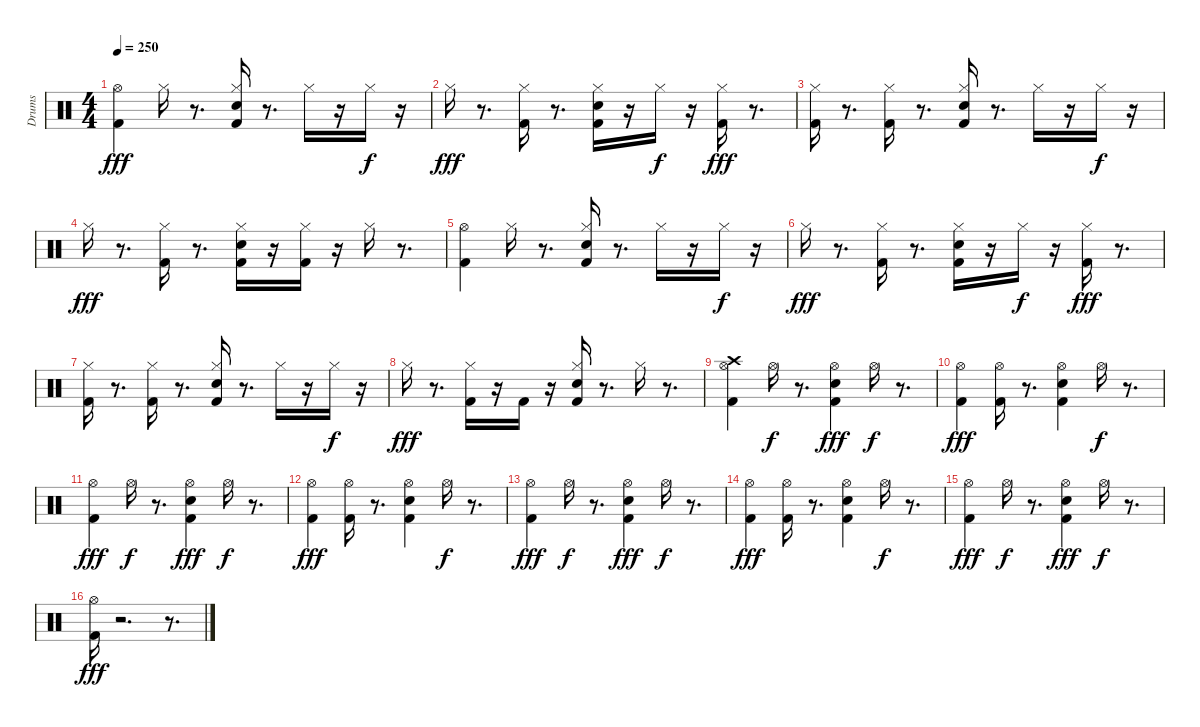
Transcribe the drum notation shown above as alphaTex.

\track ("Drums" "Drums") {instrument percussion}
\staff {score}
\articulation defaults
\ts (4 4)
\tempo 250
\clef neutral
\ks c
("Hi-Hat (open)" "Kick (hit) 2").4{dy fff} "Hi-Hat (closed)".16 r.8{d} ("Kick (hit) 2" "Electric Snare (hit)" "Hi-Hat (closed)").16 r.8{d} "Hi-Hat (closed)".16 r.16 "Hi-Hat (closed)".16{dy f} r.16 |
"Hi-Hat (closed)".16{dy fff} r.8{d} ("Kick (hit) 2" "Hi-Hat (closed)").16 r.8{d} ("Kick (hit) 2" "Electric Snare (hit)" "Hi-Hat (closed)").16 r.16 "Hi-Hat (closed)".16{dy f} r.16 ("Kick (hit) 2" "Hi-Hat (closed)").16{dy fff} r.8{d} |
("Kick (hit) 2" "Hi-Hat (closed)").16 r.8{d} ("Hi-Hat (closed)" "Kick (hit) 2").16 r.8{d} ("Kick (hit) 2" "Electric Snare (hit)" "Hi-Hat (closed)").16 r.8{d} "Hi-Hat (closed)".16 r.16 "Hi-Hat (closed)".16{dy f} r.16 |
"Hi-Hat (closed)".16{dy fff} r.8{d} ("Kick (hit) 2" "Hi-Hat (closed)").16 r.8{d} ("Kick (hit) 2" "Electric Snare (hit)" "Hi-Hat (closed)").16 r.16 ("Hi-Hat (closed)" "Kick (hit) 2").16 r.16 "Hi-Hat (closed)".16 r.8{d} |
("Hi-Hat (open)" "Kick (hit) 2").4 "Hi-Hat (closed)".16 r.8{d} ("Kick (hit) 2" "Electric Snare (hit)" "Hi-Hat (closed)").16 r.8{d} "Hi-Hat (closed)".16 r.16 "Hi-Hat (closed)".16{dy f} r.16 |
"Hi-Hat (closed)".16{dy fff} r.8{d} ("Kick (hit) 2" "Hi-Hat (closed)").16 r.8{d} ("Kick (hit) 2" "Electric Snare (hit)" "Hi-Hat (closed)").16 r.16 "Hi-Hat (closed)".16{dy f} r.16 ("Kick (hit) 2" "Hi-Hat (closed)").16{dy fff} r.8{d} |
("Kick (hit) 2" "Hi-Hat (closed)").16 r.8{d} ("Hi-Hat (closed)" "Kick (hit) 2").16 r.8{d} ("Kick (hit) 2" "Electric Snare (hit)" "Hi-Hat (closed)").16 r.8{d} "Hi-Hat (closed)".16 r.16 "Hi-Hat (closed)".16{dy f} r.16 |
"Hi-Hat (closed)".16{dy fff} r.8{d} ("Kick (hit) 2" "Hi-Hat (closed)").16 r.16 "Kick (hit) 2".16 r.16 ("Kick (hit) 2" "Electric Snare (hit)" "Hi-Hat (closed)").16 r.8{d} "Hi-Hat (closed)".16 r.8{d} |
("Hi-Hat (open)" "Kick (hit) 2" "Crash high (hit)").4 "Hi-Hat (open)".16{dy f} r.8{d} ("Hi-Hat (open)" "Electric Snare (hit)" "Kick (hit) 2").4{dy fff} "Hi-Hat (open)".16{dy f} r.8{d} |
("Hi-Hat (open)" "Kick (hit) 2").4{dy fff} ("Hi-Hat (open)" "Kick (hit) 2").16 r.8{d} ("Hi-Hat (open)" "Electric Snare (hit)" "Kick (hit) 2").4 "Hi-Hat (open)".16{dy f} r.8{d} |
("Kick (hit) 2" "Hi-Hat (open)").4{dy fff} "Hi-Hat (open)".16{dy f} r.8{d} ("Hi-Hat (open)" "Electric Snare (hit)" "Kick (hit) 2").4{dy fff} "Hi-Hat (open)".16{dy f} r.8{d} |
("Hi-Hat (open)" "Kick (hit) 2").4{dy fff} ("Hi-Hat (open)" "Kick (hit) 2").16 r.8{d} ("Hi-Hat (open)" "Electric Snare (hit)" "Kick (hit) 2").4 "Hi-Hat (open)".16{dy f} r.8{d} |
("Kick (hit) 2" "Hi-Hat (open)").4{dy fff} "Hi-Hat (open)".16{dy f} r.8{d} ("Hi-Hat (open)" "Electric Snare (hit)" "Kick (hit) 2").4{dy fff} "Hi-Hat (open)".16{dy f} r.8{d} |
("Hi-Hat (open)" "Kick (hit) 2").4{dy fff} ("Hi-Hat (open)" "Kick (hit) 2").16 r.8{d} ("Hi-Hat (open)" "Electric Snare (hit)" "Kick (hit) 2").4 "Hi-Hat (open)".16{dy f} r.8{d} |
("Kick (hit) 2" "Hi-Hat (open)").4{dy fff} "Hi-Hat (open)".16{dy f} r.8{d} ("Hi-Hat (open)" "Electric Snare (hit)" "Kick (hit) 2").4{dy fff} "Hi-Hat (open)".16{dy f} r.8{d} |
("Kick (hit) 2" "Hi-Hat (open)").16{dy fff} r.2{d} r.8{d}
